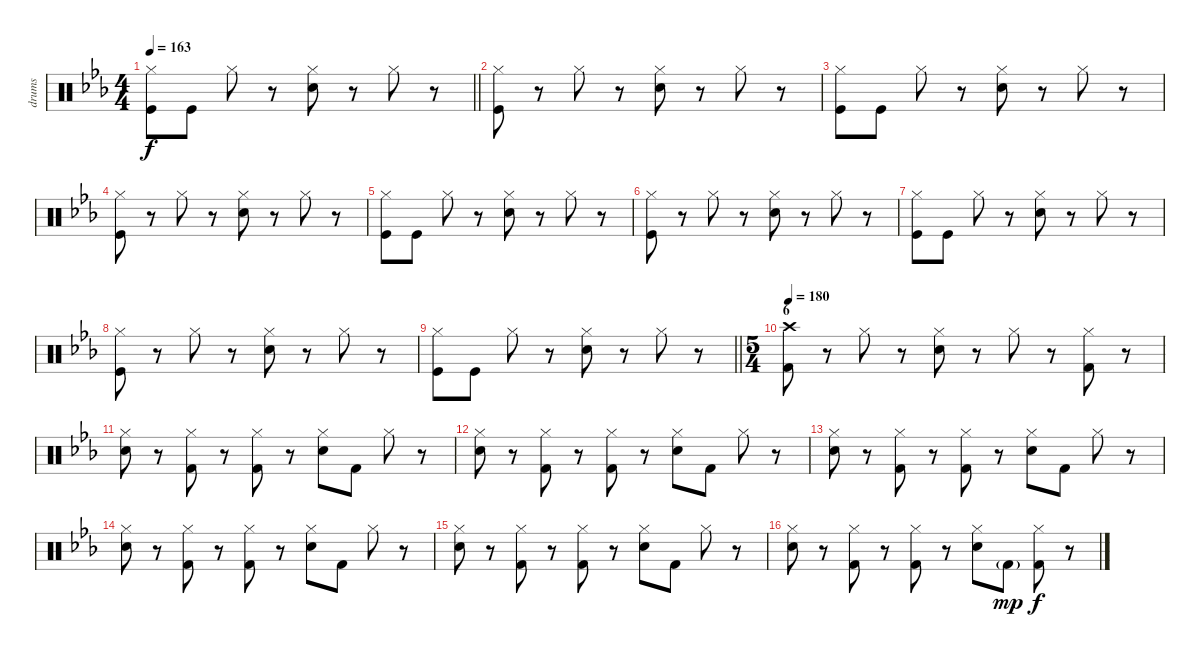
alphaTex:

\track ("drums" "drums") {instrument percussion}
\staff {score}
\articulation defaults
\ts (4 4)
\tempo 163
\clef neutral
\barLineRight lightlight
\ks cminor
("Kick (hit)" "Hi-Hat (closed)").8{dy f} "Kick (hit)".8 "Hi-Hat (closed)".8 r.8 ("Electric Snare (hit)" "Hi-Hat (closed)").8 r.8 "Hi-Hat (closed)".8 r.8 |
("Kick (hit)" "Hi-Hat (closed)").8 r.8 "Hi-Hat (closed)".8 r.8 ("Electric Snare (hit)" "Hi-Hat (closed)").8 r.8 "Hi-Hat (closed)".8 r.8 |
("Kick (hit)" "Hi-Hat (closed)").8 "Kick (hit)".8 "Hi-Hat (closed)".8 r.8 ("Electric Snare (hit)" "Hi-Hat (closed)").8 r.8 "Hi-Hat (closed)".8 r.8 |
("Kick (hit)" "Hi-Hat (closed)").8 r.8 "Hi-Hat (closed)".8 r.8 ("Electric Snare (hit)" "Hi-Hat (closed)").8 r.8 "Hi-Hat (closed)".8 r.8 |
("Kick (hit)" "Hi-Hat (closed)").8 "Kick (hit)".8 "Hi-Hat (closed)".8 r.8 ("Electric Snare (hit)" "Hi-Hat (closed)").8 r.8 "Hi-Hat (closed)".8 r.8 |
("Kick (hit)" "Hi-Hat (closed)").8 r.8 "Hi-Hat (closed)".8 r.8 ("Electric Snare (hit)" "Hi-Hat (closed)").8 r.8 "Hi-Hat (closed)".8 r.8 |
("Kick (hit)" "Hi-Hat (closed)").8 "Kick (hit)".8 "Hi-Hat (closed)".8 r.8 ("Electric Snare (hit)" "Hi-Hat (closed)").8 r.8 "Hi-Hat (closed)".8 r.8 |
("Kick (hit)" "Hi-Hat (closed)").8 r.8 "Hi-Hat (closed)".8 r.8 ("Electric Snare (hit)" "Hi-Hat (closed)").8 r.8 "Hi-Hat (closed)".8 r.8 |
\barLineRight lightlight
("Kick (hit)" "Hi-Hat (closed)").8 "Kick (hit)".8 "Hi-Hat (closed)".8 r.8 ("Electric Snare (hit)" "Hi-Hat (closed)").8 r.8 "Hi-Hat (closed)".8 r.8 |
\ts (5 4)
\section ("" "6")
\tempo 180
("Crash high (hit)" "Kick (hit) 2").8 r.8 "Hi-Hat (closed)".8 r.8 ("Hi-Hat (closed)" "Electric Snare (hit)").8 r.8 "Hi-Hat (closed)".8 r.8 ("Hi-Hat (closed)" "Kick (hit) 2").8 r.8 |
("Hi-Hat (closed)" "Electric Snare (hit)").8 r.8 ("Hi-Hat (closed)" "Kick (hit) 2").8 r.8 ("Hi-Hat (closed)" "Kick (hit) 2").8 r.8 ("Hi-Hat (closed)" "Electric Snare (hit)").8 "Kick (hit) 2".8 "Hi-Hat (closed)".8 r.8 |
("Hi-Hat (closed)" "Electric Snare (hit)").8 r.8 ("Hi-Hat (closed)" "Kick (hit) 2").8 r.8 ("Hi-Hat (closed)" "Kick (hit) 2").8 r.8 ("Hi-Hat (closed)" "Electric Snare (hit)").8 "Kick (hit) 2".8 "Hi-Hat (closed)".8 r.8 |
("Hi-Hat (closed)" "Electric Snare (hit)").8 r.8 ("Hi-Hat (closed)" "Kick (hit) 2").8 r.8 ("Hi-Hat (closed)" "Kick (hit) 2").8 r.8 ("Hi-Hat (closed)" "Electric Snare (hit)").8 "Kick (hit) 2".8 "Hi-Hat (closed)".8 r.8 |
("Hi-Hat (closed)" "Electric Snare (hit)").8 r.8 ("Hi-Hat (closed)" "Kick (hit) 2").8 r.8 ("Hi-Hat (closed)" "Kick (hit) 2").8 r.8 ("Hi-Hat (closed)" "Electric Snare (hit)").8 "Kick (hit) 2".8 "Hi-Hat (closed)".8 r.8 |
("Hi-Hat (closed)" "Electric Snare (hit)").8 r.8 ("Hi-Hat (closed)" "Kick (hit) 2").8 r.8 ("Hi-Hat (closed)" "Kick (hit) 2").8 r.8 ("Hi-Hat (closed)" "Electric Snare (hit)").8 "Kick (hit) 2".8 "Hi-Hat (closed)".8 r.8 |
("Hi-Hat (closed)" "Electric Snare (hit)").8 r.8 ("Hi-Hat (closed)" "Kick (hit) 2").8 r.8 ("Hi-Hat (closed)" "Kick (hit) 2").8 r.8 ("Hi-Hat (closed)" "Electric Snare (hit)").8 "Kick (hit) 2"{g}.8{dy mp} ("Hi-Hat (closed)" "Kick (hit) 2").8{dy f} r.8
